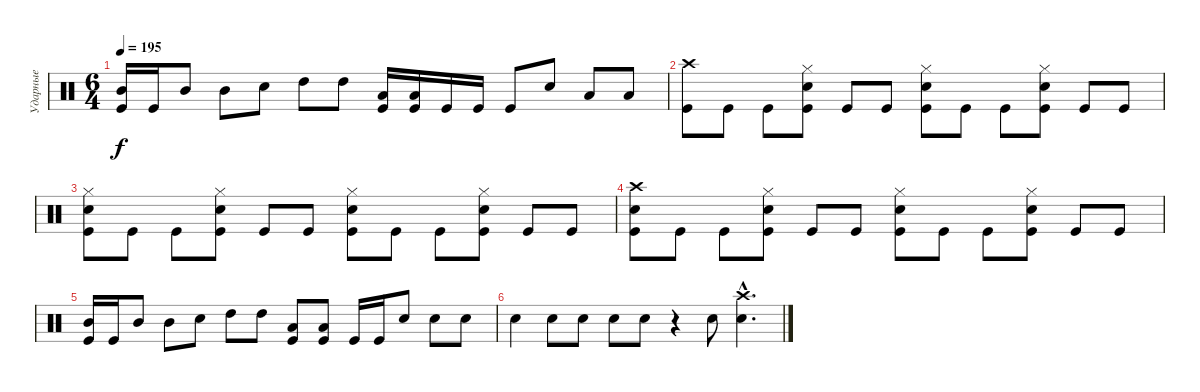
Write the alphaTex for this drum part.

\track ("Ударные" "Ударные") {instrument percussion}
\staff {score}
\articulation defaults
\ts (6 4)
\tempo 195
\clef neutral
\ks c
("Mid Tom (hit)" "Kick (hit)").16{dy f} "Kick (hit)".16 "Mid Tom (hit)".8 "Mid Tom (hit)".8 "Electric Snare (hit)".8 "High Tom (hit)".8 "High Tom (hit)".8 ("Low Tom (hit)" "Kick (hit)").16 ("Low Tom (hit)" "Kick (hit)").16 "Kick (hit)".16 "Kick (hit)".16 "Kick (hit)".8 "Electric Snare (hit)".8 "Low Tom (hit)".8 "Low Tom (hit)".8 |
("Crash high (hit)" "Kick (hit)").8 "Kick (hit)".8 "Kick (hit)".8 ("Hi-Hat (closed)" "Electric Snare (hit)" "Kick (hit)").8 "Kick (hit)".8 "Kick (hit)".8 ("Hi-Hat (closed)" "Electric Snare (hit)" "Kick (hit)").8 "Kick (hit)".8 "Kick (hit)".8 ("Hi-Hat (closed)" "Electric Snare (hit)" "Kick (hit)").8 "Kick (hit)".8 "Kick (hit)".8 |
("Hi-Hat (closed)" "Electric Snare (hit)" "Kick (hit)").8 "Kick (hit)".8 "Kick (hit)".8 ("Hi-Hat (closed)" "Electric Snare (hit)" "Kick (hit)").8 "Kick (hit)".8 "Kick (hit)".8 ("Hi-Hat (closed)" "Electric Snare (hit)" "Kick (hit)").8 "Kick (hit)".8 "Kick (hit)".8 ("Hi-Hat (closed)" "Electric Snare (hit)" "Kick (hit)").8 "Kick (hit)".8 "Kick (hit)".8 |
("Crash high (hit)" "Electric Snare (hit)" "Kick (hit)").8 "Kick (hit)".8 "Kick (hit)".8 ("Hi-Hat (closed)" "Electric Snare (hit)" "Kick (hit)").8 "Kick (hit)".8 "Kick (hit)".8 ("Hi-Hat (closed)" "Electric Snare (hit)" "Kick (hit)").8 "Kick (hit)".8 "Kick (hit)".8 ("Hi-Hat (closed)" "Electric Snare (hit)" "Kick (hit)").8 "Kick (hit)".8 "Kick (hit)".8 |
("Mid Tom (hit)" "Kick (hit)").16 "Kick (hit)".16 "Mid Tom (hit)".8 "Mid Tom (hit)".8 "Electric Snare (hit)".8 "High Tom (hit)".8 "High Tom (hit)".8 ("Low Tom (hit)" "Kick (hit)").8 ("Low Tom (hit)" "Kick (hit)").8 "Kick (hit)".16 "Kick (hit)".16 "Electric Snare (hit)".8 "Electric Snare (hit)".8 "Electric Snare (hit)".8 |
"Electric Snare (hit)".4 "Electric Snare (hit)".8 "Electric Snare (hit)".8 "Electric Snare (hit)".8 "Electric Snare (hit)".8 r.4 "Electric Snare (hit)".8 ("Crash high (hit)"{hac} "Electric Snare (hit)"{hac}).4{d}
